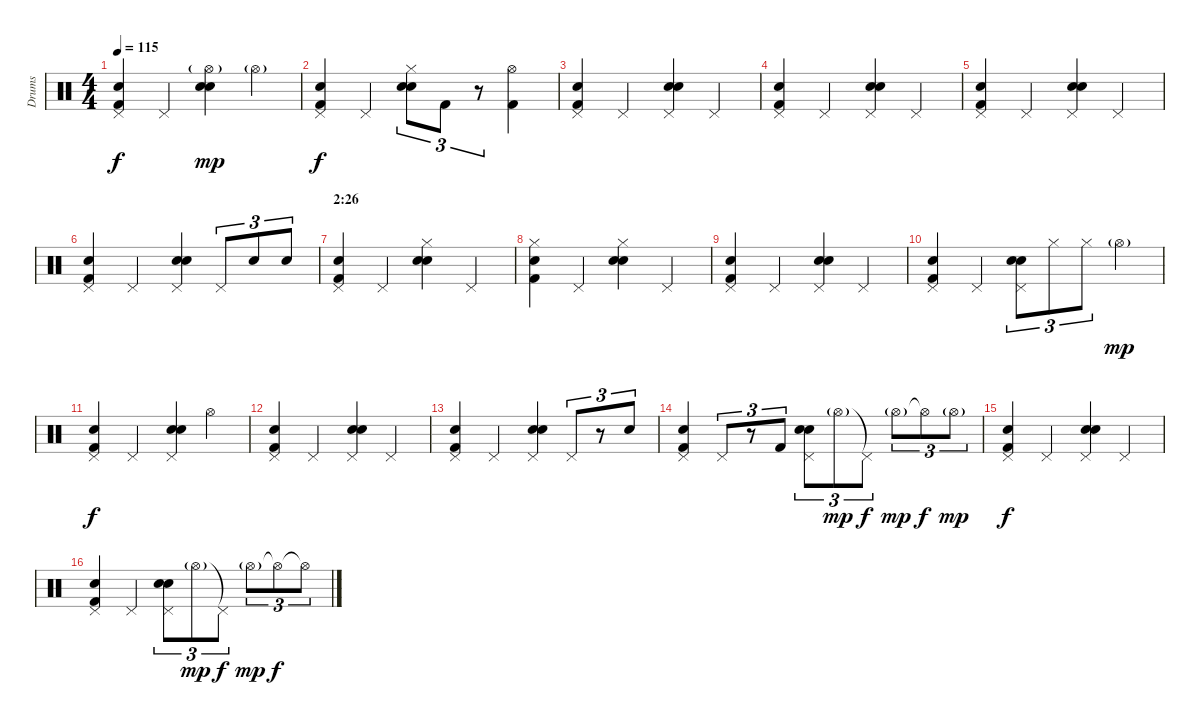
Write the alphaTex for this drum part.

\track ("Drums" "Drums") {instrument percussion}
\staff {score}
\articulation defaults
\ts (4 4)
\tempo 115
\clef neutral
\ks c
("Pedal Hi-Hat (hit)" "Hand Clap (hit)" "Kick (hit) 2").4{dy f} "Pedal Hi-Hat (hit)".4 ("Hi-Hat (open)"{g} "Hand Clap (hit)" "Electric Snare (hit)").4{dy mp} "Hi-Hat (open)"{g}.4 |
("Pedal Hi-Hat (hit)" "Hand Clap (hit)" "Kick (hit) 2").4{dy f} "Pedal Hi-Hat (hit)".4 ("Hi-Hat (closed)" "Hand Clap (hit)" "Electric Snare (hit)").8{tu (3 2)} "Kick (hit) 2".8{tu (3 2)} r.8{tu (3 2)} ("Hi-Hat (open)" "Kick (hit) 2").4 |
("Pedal Hi-Hat (hit)" "Hand Clap (hit)" "Kick (hit) 2").4 "Pedal Hi-Hat (hit)".4 ("Pedal Hi-Hat (hit)" "Hand Clap (hit)" "Electric Snare (hit)").4 "Pedal Hi-Hat (hit)".4 |
("Pedal Hi-Hat (hit)" "Hand Clap (hit)" "Kick (hit) 2").4 "Pedal Hi-Hat (hit)".4 ("Pedal Hi-Hat (hit)" "Hand Clap (hit)" "Electric Snare (hit)").4 "Pedal Hi-Hat (hit)".4 |
("Pedal Hi-Hat (hit)" "Hand Clap (hit)" "Kick (hit) 2").4 "Pedal Hi-Hat (hit)".4 ("Pedal Hi-Hat (hit)" "Hand Clap (hit)" "Electric Snare (hit)").4 "Pedal Hi-Hat (hit)".4 |
("Pedal Hi-Hat (hit)" "Hand Clap (hit)" "Kick (hit) 2").4 "Pedal Hi-Hat (hit)".4 ("Pedal Hi-Hat (hit)" "Hand Clap (hit)" "Electric Snare (hit)").4 "Pedal Hi-Hat (hit)".8{tu (3 2)} "Electric Snare (hit)".8{tu (3 2)} "Electric Snare (hit)".8{tu (3 2)} |
\section ("" "2:26")
("Pedal Hi-Hat (hit)" "Hand Clap (hit)" "Kick (hit) 2").4 "Pedal Hi-Hat (hit)".4 ("Hi-Hat (closed)" "Hand Clap (hit)" "Electric Snare (hit)").4 "Pedal Hi-Hat (hit)".4 |
("Hi-Hat (closed)" "Hand Clap (hit)" "Kick (hit) 2").4 "Pedal Hi-Hat (hit)".4 ("Hi-Hat (closed)" "Hand Clap (hit)" "Electric Snare (hit)").4 "Pedal Hi-Hat (hit)".4 |
("Pedal Hi-Hat (hit)" "Hand Clap (hit)" "Kick (hit) 2").4 "Pedal Hi-Hat (hit)".4 ("Pedal Hi-Hat (hit)" "Hand Clap (hit)" "Electric Snare (hit)").4 "Pedal Hi-Hat (hit)".4 |
("Pedal Hi-Hat (hit)" "Hand Clap (hit)" "Kick (hit) 2").4 "Pedal Hi-Hat (hit)".4 ("Pedal Hi-Hat (hit)" "Hand Clap (hit)" "Electric Snare (hit)").8{tu (3 2)} "Hi-Hat (closed)".8{tu (3 2)} "Hi-Hat (closed)".8{tu (3 2)} "Hi-Hat (open)"{g}.4{dy mp} |
("Pedal Hi-Hat (hit)" "Hand Clap (hit)" "Kick (hit) 2").4{dy f} "Pedal Hi-Hat (hit)".4 ("Pedal Hi-Hat (hit)" "Hand Clap (hit)" "Electric Snare (hit)").4 "Hi-Hat (open)".4 |
("Pedal Hi-Hat (hit)" "Hand Clap (hit)" "Kick (hit) 2").4 "Pedal Hi-Hat (hit)".4 ("Pedal Hi-Hat (hit)" "Hand Clap (hit)" "Electric Snare (hit)").4 "Pedal Hi-Hat (hit)".4 |
("Pedal Hi-Hat (hit)" "Hand Clap (hit)" "Kick (hit) 2").4 "Pedal Hi-Hat (hit)".4 ("Pedal Hi-Hat (hit)" "Hand Clap (hit)" "Electric Snare (hit)").4 "Pedal Hi-Hat (hit)".8{tu (3 2)} r.8{tu (3 2)} "Electric Snare (hit)".8{tu (3 2)} |
("Pedal Hi-Hat (hit)" "Hand Clap (hit)" "Kick (hit) 2").4 "Pedal Hi-Hat (hit)".8{tu (3 2)} r.8{tu (3 2)} "Kick (hit) 2".8{tu (3 2)} ("Pedal Hi-Hat (hit)" "Hand Clap (hit)" "Electric Snare (hit)").8{tu (3 2)} "Hi-Hat (open)"{g}.8{tu (3 2) dy mp} "Pedal Hi-Hat (hit)"{t}.8{tu (3 2) dy f} "Hi-Hat (open)"{g}.8{tu (3 2) dy mp} "Hi-Hat (open)"{t}.8{tu (3 2) dy f} "Hi-Hat (open)"{g}.8{tu (3 2) dy mp} |
("Pedal Hi-Hat (hit)" "Hand Clap (hit)" "Kick (hit) 2").4{dy f} "Pedal Hi-Hat (hit)".4 ("Pedal Hi-Hat (hit)" "Hand Clap (hit)" "Electric Snare (hit)").4 "Pedal Hi-Hat (hit)".4 |
("Pedal Hi-Hat (hit)" "Hand Clap (hit)" "Kick (hit) 2").4 "Pedal Hi-Hat (hit)".4 ("Pedal Hi-Hat (hit)" "Hand Clap (hit)" "Electric Snare (hit)").8{tu (3 2)} "Hi-Hat (open)"{g}.8{tu (3 2) dy mp} "Pedal Hi-Hat (hit)"{t}.8{tu (3 2) dy f} "Hi-Hat (open)"{g}.8{tu (3 2) dy mp} "Hi-Hat (open)"{t}.8{tu (3 2) dy f} "Hi-Hat (open)"{t}.8{tu (3 2)}
